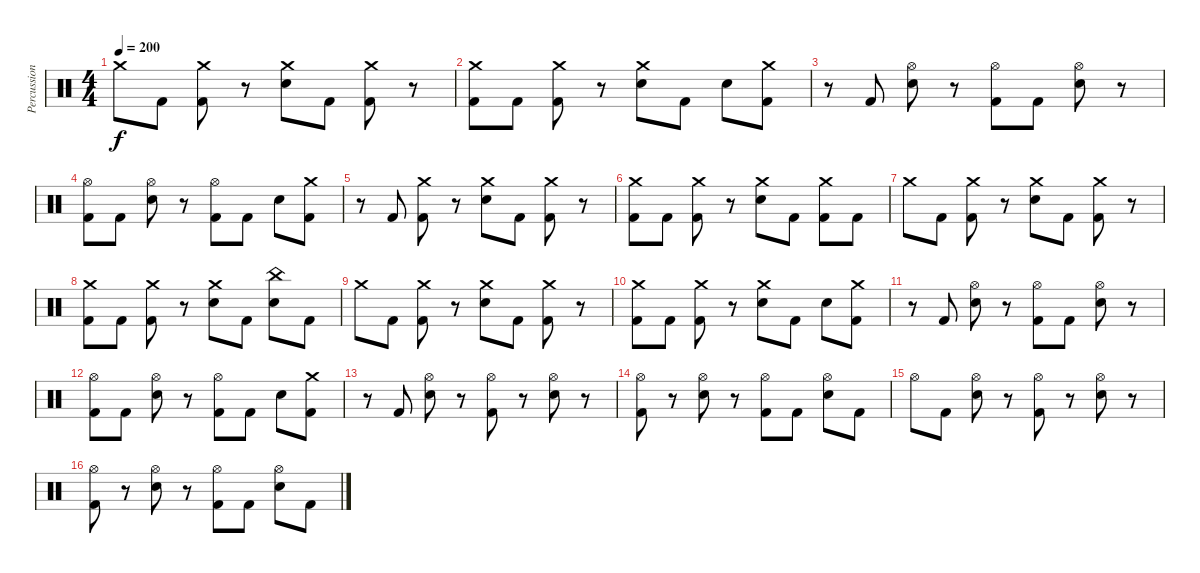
\track ("Percussion" "Percussion") {instrument percussion}
\staff {score}
\articulation defaults
\ts (4 4)
\tempo 200
\clef neutral
\ks c "Crash medium (hit)".8{dy f} "Kick (hit) 2".8
("Kick (hit) 2" "Crash medium (hit)").8 r.8 ("Electric Snare (hit)" "Crash medium (hit)").8 "Kick (hit) 2".8 ("Kick (hit) 2" "Crash medium (hit)").8 r.8 |
("Kick (hit) 2" "Crash medium (hit)").8 "Kick (hit) 2".8 ("Kick (hit) 2" "Crash medium (hit)").8 r.8 ("Electric Snare (hit)" "Crash medium (hit)").8 "Kick (hit) 2".8 "Electric Snare (hit)".8 ("Kick (hit) 2" "Crash medium (hit)").8 |
r.8 "Kick (hit) 2".8 ("Electric Snare (hit)" "Hi-Hat (open)").8 r.8 ("Kick (hit) 2" "Hi-Hat (open)").8 "Kick (hit) 2".8 ("Electric Snare (hit)" "Hi-Hat (open)").8 r.8 |
("Kick (hit) 2" "Hi-Hat (open)").8 "Kick (hit) 2".8 ("Electric Snare (hit)" "Hi-Hat (open)").8 r.8 ("Kick (hit) 2" "Hi-Hat (open)").8 "Kick (hit) 2".8 "Electric Snare (hit)".8 ("Kick (hit) 2" "Crash medium (hit)").8 |
r.8 "Kick (hit) 2".8 ("Kick (hit) 2" "Crash medium (hit)").8 r.8 ("Electric Snare (hit)" "Crash medium (hit)").8 "Kick (hit) 2".8 ("Kick (hit) 2" "Crash medium (hit)").8 r.8 |
("Kick (hit) 2" "Crash medium (hit)").8 "Kick (hit) 2".8 ("Kick (hit) 2" "Crash medium (hit)").8 r.8 ("Electric Snare (hit)" "Crash medium (hit)").8 "Kick (hit) 2".8 ("Kick (hit) 2" "Crash medium (hit)").8 "Kick (hit) 2".8 |
"Crash medium (hit)".8 "Kick (hit) 2".8 ("Kick (hit) 2" "Crash medium (hit)").8 r.8 ("Electric Snare (hit)" "Crash medium (hit)").8 "Kick (hit) 2".8 ("Kick (hit) 2" "Crash medium (hit)").8 r.8 |
("Kick (hit) 2" "Crash medium (hit)").8 "Kick (hit) 2".8 ("Kick (hit) 2" "Crash medium (hit)").8 r.8 ("Electric Snare (hit)" "Crash medium (hit)").8 "Kick (hit) 2".8 ("Electric Snare (hit)" "China (hit)").8 "Kick (hit) 2".8 |
"Crash medium (hit)".8 "Kick (hit) 2".8 ("Kick (hit) 2" "Crash medium (hit)").8 r.8 ("Electric Snare (hit)" "Crash medium (hit)").8 "Kick (hit) 2".8 ("Kick (hit) 2" "Crash medium (hit)").8 r.8 |
("Kick (hit) 2" "Crash medium (hit)").8 "Kick (hit) 2".8 ("Kick (hit) 2" "Crash medium (hit)").8 r.8 ("Electric Snare (hit)" "Crash medium (hit)").8 "Kick (hit) 2".8 "Electric Snare (hit)".8 ("Kick (hit) 2" "Crash medium (hit)").8 |
r.8 "Kick (hit) 2".8 ("Electric Snare (hit)" "Hi-Hat (open)").8 r.8 ("Kick (hit) 2" "Hi-Hat (open)").8 "Kick (hit) 2".8 ("Electric Snare (hit)" "Hi-Hat (open)").8 r.8 |
("Kick (hit) 2" "Hi-Hat (open)").8 "Kick (hit) 2".8 ("Electric Snare (hit)" "Hi-Hat (open)").8 r.8 ("Kick (hit) 2" "Hi-Hat (open)").8 "Kick (hit) 2".8 "Electric Snare (hit)".8 ("Kick (hit) 2" "Crash medium (hit)").8 |
r.8 "Kick (hit) 2".8 ("Electric Snare (hit)" "Hi-Hat (open)").8 r.8 ("Kick (hit) 2" "Hi-Hat (open)").8 r.8 ("Electric Snare (hit)" "Hi-Hat (open)").8 r.8 |
("Kick (hit) 2" "Hi-Hat (open)").8 r.8 ("Electric Snare (hit)" "Hi-Hat (open)").8 r.8 ("Kick (hit) 2" "Hi-Hat (open)").8 "Kick (hit) 2".8 ("Electric Snare (hit)" "Hi-Hat (open)").8 "Kick (hit) 2".8 |
"Hi-Hat (open)".8 "Kick (hit) 2".8 ("Electric Snare (hit)" "Hi-Hat (open)").8 r.8 ("Kick (hit) 2" "Hi-Hat (open)").8 r.8 ("Electric Snare (hit)" "Hi-Hat (open)").8 r.8 |
("Kick (hit) 2" "Hi-Hat (open)").8 r.8 ("Electric Snare (hit)" "Hi-Hat (open)").8 r.8 ("Kick (hit) 2" "Hi-Hat (open)").8 "Kick (hit) 2".8 ("Electric Snare (hit)" "Hi-Hat (open)").8 "Kick (hit) 2".8
